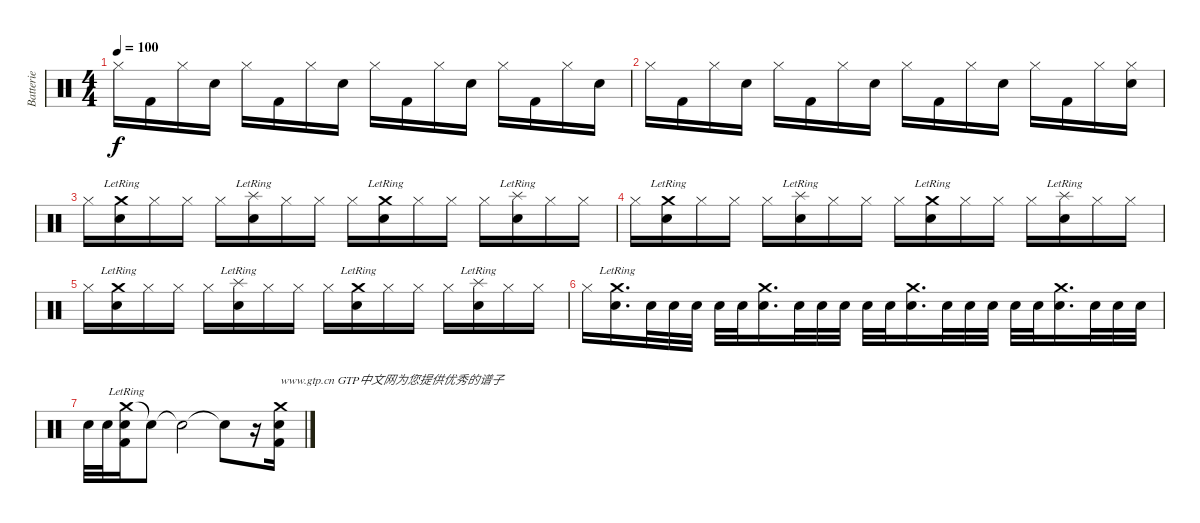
\track ("Batterie" "Batterie") {instrument percussion}
\staff {score}
\articulation defaults
\ts (4 4)
\tempo 100
\clef neutral
\ks c "Hi-Hat (closed)".16{dy f} "Kick (hit) 2".16 "Hi-Hat (closed)".16 "Electric Snare (hit)".16 "Hi-Hat (closed)".16 "Kick (hit) 2".16 "Hi-Hat (closed)".16 "Electric Snare (hit)".16 "Hi-Hat (closed)".16 "Kick (hit) 2".16 "Hi-Hat (closed)".16 "Electric Snare (hit)".16 "Hi-Hat (closed)".16 "Kick (hit) 2".16 "Hi-Hat (closed)".16 "Electric Snare (hit)".16
|
"Hi-Hat (closed)".16 "Kick (hit) 2".16 "Hi-Hat (closed)".16 "Electric Snare (hit)".16 "Hi-Hat (closed)".16 "Kick (hit) 2".16 "Hi-Hat (closed)".16 "Electric Snare (hit)".16 "Hi-Hat (closed)".16 "Kick (hit) 2".16 "Hi-Hat (closed)".16 "Electric Snare (hit)".16 "Hi-Hat (closed)".16 "Kick (hit) 2".16 "Hi-Hat (closed)".16 ("Electric Snare (hit)" "Hi-Hat (closed)").16 |
"Hi-Hat (closed)".16 ("Crash medium (hit)"{lr} "Electric Snare (hit)").16 "Hi-Hat (closed)".16 "Hi-Hat (closed)".16 "Hi-Hat (closed)".16 ("Splash (hit)"{lr} "Electric Snare (hit)").16 "Hi-Hat (closed)".16 "Hi-Hat (closed)".16 "Hi-Hat (closed)".16 ("Crash medium (hit)"{lr} "Electric Snare (hit)").16 "Hi-Hat (closed)".16 "Hi-Hat (closed)".16 "Hi-Hat (closed)".16 ("Splash (hit)"{lr} "Electric Snare (hit)").16 "Hi-Hat (closed)".16 "Hi-Hat (closed)".16 |
"Hi-Hat (closed)".16 ("Crash medium (hit)"{lr} "Electric Snare (hit)").16 "Hi-Hat (closed)".16 "Hi-Hat (closed)".16 "Hi-Hat (closed)".16 ("Splash (hit)"{lr} "Electric Snare (hit)").16 "Hi-Hat (closed)".16 "Hi-Hat (closed)".16 "Hi-Hat (closed)".16 ("Crash medium (hit)"{lr} "Electric Snare (hit)").16 "Hi-Hat (closed)".16 "Hi-Hat (closed)".16 "Hi-Hat (closed)".16 ("Splash (hit)"{lr} "Electric Snare (hit)").16 "Hi-Hat (closed)".16 "Hi-Hat (closed)".16 |
"Hi-Hat (closed)".16 ("Crash medium (hit)"{lr} "Electric Snare (hit)").16 "Hi-Hat (closed)".16 "Hi-Hat (closed)".16 "Hi-Hat (closed)".16 ("Splash (hit)"{lr} "Electric Snare (hit)").16 "Hi-Hat (closed)".16 "Hi-Hat (closed)".16 "Hi-Hat (closed)".16 ("Crash medium (hit)"{lr} "Electric Snare (hit)").16 "Hi-Hat (closed)".16 "Hi-Hat (closed)".16 "Hi-Hat (closed)".16 ("Splash (hit)"{lr} "Electric Snare (hit)").16 "Hi-Hat (closed)".16 "Hi-Hat (closed)".16 |
"Hi-Hat (closed)".16 ("Crash medium (hit)"{lr} "Electric Snare (hit)").16{d} "Electric Snare (hit)".32 "Electric Snare (hit)".32 "Electric Snare (hit)".32 "Electric Snare (hit)".32 "Electric Snare (hit)".32 ("Crash medium (hit)" "Electric Snare (hit)").16{d} "Electric Snare (hit)".32 "Electric Snare (hit)".32 "Electric Snare (hit)".32 "Electric Snare (hit)".32 "Electric Snare (hit)".32 ("Crash medium (hit)" "Electric Snare (hit)").16{d} "Electric Snare (hit)".32 "Electric Snare (hit)".32 "Electric Snare (hit)".32 "Electric Snare (hit)".32 "Electric Snare (hit)".32 ("Crash medium (hit)" "Electric Snare (hit)").16{d} "Electric Snare (hit)".32 "Electric Snare (hit)".32 "Electric Snare (hit)".32 |
"Electric Snare (hit)".32 "Electric Snare (hit)".32 ("Crash medium (hit)"{lr} "Electric Snare (hit)" "Kick (hit) 2").16 "Snare (hit)"{t}.8 "Snare (hit)"{t}.2 "Snare (hit)"{t}.8 r.16 ("Crash medium (hit)" "Electric Snare (hit)" "Kick (hit) 2").16{txt "www.gtp.cn GTP中文网为您提供优秀的谱子"}
